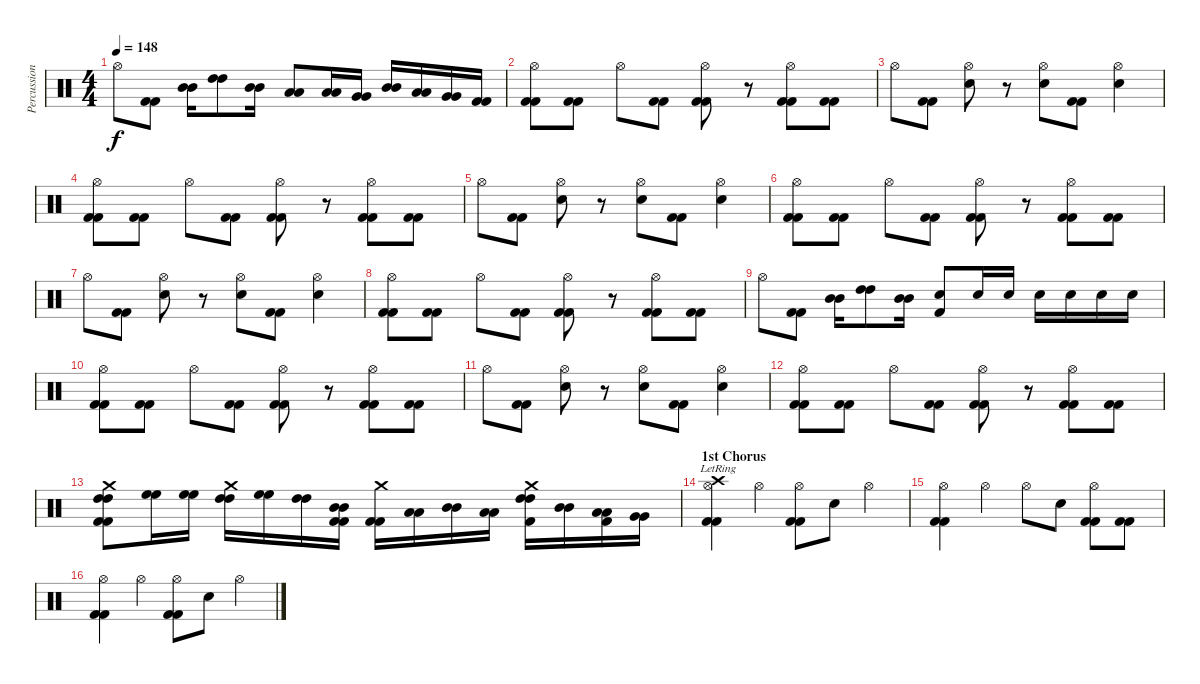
\track ("Percussion" "Percussion") {instrument percussion}
\staff {score}
\articulation defaults
\ts (4 4)
\tempo 148
\clef neutral
\ks c "Hi-Hat (open)".8{dy f}
("Kick (hit) 2" "Kick (hit) 2").8 ("Mid Tom (hit)" "Mid Tom (hit)").16 ("High Tom (hit)" "High Tom (hit)").8{bd 240} ("Mid Tom (hit)" "Mid Tom (hit)").16 ("Low Tom (hit)" "Low Tom (hit)").8{bd 240} ("Low Tom (hit)" "Low Tom (hit)").16 ("Very Low Tom (hit)" "Very Low Tom (hit)").16 ("Mid Tom (hit)" "Mid Tom (hit)").16 ("Low Tom (hit)" "Low Tom (hit)").16 ("Very Low Tom (hit)" "Very Low Tom (hit)").16 ("Kick (hit) 2" "Kick (hit) 2").16 |
("Hi-Hat (open)" "Kick (hit) 2" "Kick (hit) 2").8 ("Kick (hit) 2" "Kick (hit) 2").8 "Hi-Hat (open)".8 ("Kick (hit) 2" "Kick (hit) 2").8 ("Hi-Hat (open)" "Kick (hit) 2" "Kick (hit) 2").8 r.8 ("Hi-Hat (open)" "Kick (hit) 2" "Kick (hit) 2").8 ("Kick (hit) 2" "Kick (hit) 2").8 |
"Hi-Hat (open)".8 ("Kick (hit) 2" "Kick (hit) 2").8 ("Hi-Hat (open)" "Electric Snare (hit)").8 r.8 ("Hi-Hat (open)" "Electric Snare (hit)").8 ("Kick (hit) 2" "Kick (hit) 2").8 ("Hi-Hat (open)" "Electric Snare (hit)").4 |
("Hi-Hat (open)" "Kick (hit) 2" "Kick (hit) 2").8 ("Kick (hit) 2" "Kick (hit) 2").8 "Hi-Hat (open)".8 ("Kick (hit) 2" "Kick (hit) 2").8 ("Hi-Hat (open)" "Kick (hit) 2" "Kick (hit) 2").8 r.8 ("Hi-Hat (open)" "Kick (hit) 2" "Kick (hit) 2").8 ("Kick (hit) 2" "Kick (hit) 2").8 |
"Hi-Hat (open)".8 ("Kick (hit) 2" "Kick (hit) 2").8 ("Hi-Hat (open)" "Electric Snare (hit)").8 r.8 ("Hi-Hat (open)" "Electric Snare (hit)").8 ("Kick (hit) 2" "Kick (hit) 2").8 ("Hi-Hat (open)" "Electric Snare (hit)").4 |
("Hi-Hat (open)" "Kick (hit) 2" "Kick (hit) 2").8 ("Kick (hit) 2" "Kick (hit) 2").8 "Hi-Hat (open)".8 ("Kick (hit) 2" "Kick (hit) 2").8 ("Hi-Hat (open)" "Kick (hit) 2" "Kick (hit) 2").8 r.8 ("Hi-Hat (open)" "Kick (hit) 2" "Kick (hit) 2").8 ("Kick (hit) 2" "Kick (hit) 2").8 |
"Hi-Hat (open)".8 ("Kick (hit) 2" "Kick (hit) 2").8 ("Hi-Hat (open)" "Electric Snare (hit)").8 r.8 ("Hi-Hat (open)" "Electric Snare (hit)").8 ("Kick (hit) 2" "Kick (hit) 2").8 ("Hi-Hat (open)" "Electric Snare (hit)").4 |
("Hi-Hat (open)" "Kick (hit) 2" "Kick (hit) 2").8 ("Kick (hit) 2" "Kick (hit) 2").8 "Hi-Hat (open)".8 ("Kick (hit) 2" "Kick (hit) 2").8 ("Hi-Hat (open)" "Kick (hit) 2" "Kick (hit) 2").8 r.8 ("Hi-Hat (open)" "Kick (hit) 2" "Kick (hit) 2").8 ("Kick (hit) 2" "Kick (hit) 2").8 |
"Hi-Hat (open)".8 ("Kick (hit) 2" "Kick (hit) 2").8 ("Mid Tom (hit)" "Mid Tom (hit)").16 ("High Tom (hit)" "High Tom (hit)").8{bd 240} ("Mid Tom (hit)" "Mid Tom (hit)").16 ("Electric Snare (hit)" "Kick (hit) 2").8 "Electric Snare (hit)".16 "Electric Snare (hit)".16 "Electric Snare (hit)".16 "Electric Snare (hit)".16 "Electric Snare (hit)".16 "Electric Snare (hit)".16 |
("Hi-Hat (open)" "Kick (hit) 2" "Kick (hit) 2").8 ("Kick (hit) 2" "Kick (hit) 2").8 "Hi-Hat (open)".8 ("Kick (hit) 2" "Kick (hit) 2").8 ("Hi-Hat (open)" "Kick (hit) 2" "Kick (hit) 2").8 r.8 ("Hi-Hat (open)" "Kick (hit) 2" "Kick (hit) 2").8 ("Kick (hit) 2" "Kick (hit) 2").8 |
"Hi-Hat (open)".8 ("Kick (hit) 2" "Kick (hit) 2").8 ("Hi-Hat (open)" "Electric Snare (hit)").8 r.8 ("Hi-Hat (open)" "Electric Snare (hit)").8 ("Kick (hit) 2" "Kick (hit) 2").8 ("Hi-Hat (open)" "Electric Snare (hit)").4 |
("Hi-Hat (open)" "Kick (hit) 2" "Kick (hit) 2").8 ("Kick (hit) 2" "Kick (hit) 2").8 "Hi-Hat (open)".8 ("Kick (hit) 2" "Kick (hit) 2").8 ("Hi-Hat (open)" "Kick (hit) 2" "Kick (hit) 2").8 r.8 ("Hi-Hat (open)" "Kick (hit) 2" "Kick (hit) 2").8 ("Kick (hit) 2" "Kick (hit) 2").8 |
("Crash medium (hit)" "High Tom (hit)" "High Tom (hit)" "Kick (hit) 2" "Kick (hit) 2").8{bd 240} ("High Floor Tom (hit)" "High Floor Tom (hit)").16 ("High Floor Tom (hit)" "High Floor Tom (hit)").16 ("Crash medium (hit)" "High Tom (hit)" "High Tom (hit)").16 ("High Floor Tom (hit)" "High Floor Tom (hit)").16 ("High Tom (hit)" "High Tom (hit)").16 ("Mid Tom (hit)" "Mid Tom (hit)" "Kick (hit) 2" "Kick (hit) 2").16 ("Crash medium (hit)" "Kick (hit) 2" "Kick (hit) 2").16 ("Low Tom (hit)" "Low Tom (hit)").16 ("Mid Tom (hit)" "Mid Tom (hit)").16 ("Low Tom (hit)" "Low Tom (hit)").16 ("Crash medium (hit)" "High Tom (hit)" "High Tom (hit)" "Kick (hit) 2").16 ("Mid Tom (hit)" "Mid Tom (hit)").16 ("Low Tom (hit)" "Low Tom (hit)" "Kick (hit) 2").16 ("Very Low Tom (hit)" "Very Low Tom (hit)").16 |
\section ("" "1st Chorus")
("Crash high (hit)"{lr} "Hi-Hat (open)" "Kick (hit) 2" "Kick (hit) 2").4 "Hi-Hat (open)".4 ("Hi-Hat (open)" "Kick (hit) 2" "Kick (hit) 2").8 "Snare (hit) 2".8 "Hi-Hat (open)".4 |
("Hi-Hat (open)" "Kick (hit) 2" "Kick (hit) 2").4 "Hi-Hat (open)".4 "Hi-Hat (open)".8 "Snare (hit) 2".8 ("Hi-Hat (open)" "Kick (hit) 2" "Kick (hit) 2").8 ("Kick (hit) 2" "Kick (hit) 2").8 |
("Hi-Hat (open)" "Kick (hit) 2" "Kick (hit) 2").4 "Hi-Hat (open)".4 ("Hi-Hat (open)" "Kick (hit) 2" "Kick (hit) 2").8 "Snare (hit) 2".8 "Hi-Hat (open)".4
